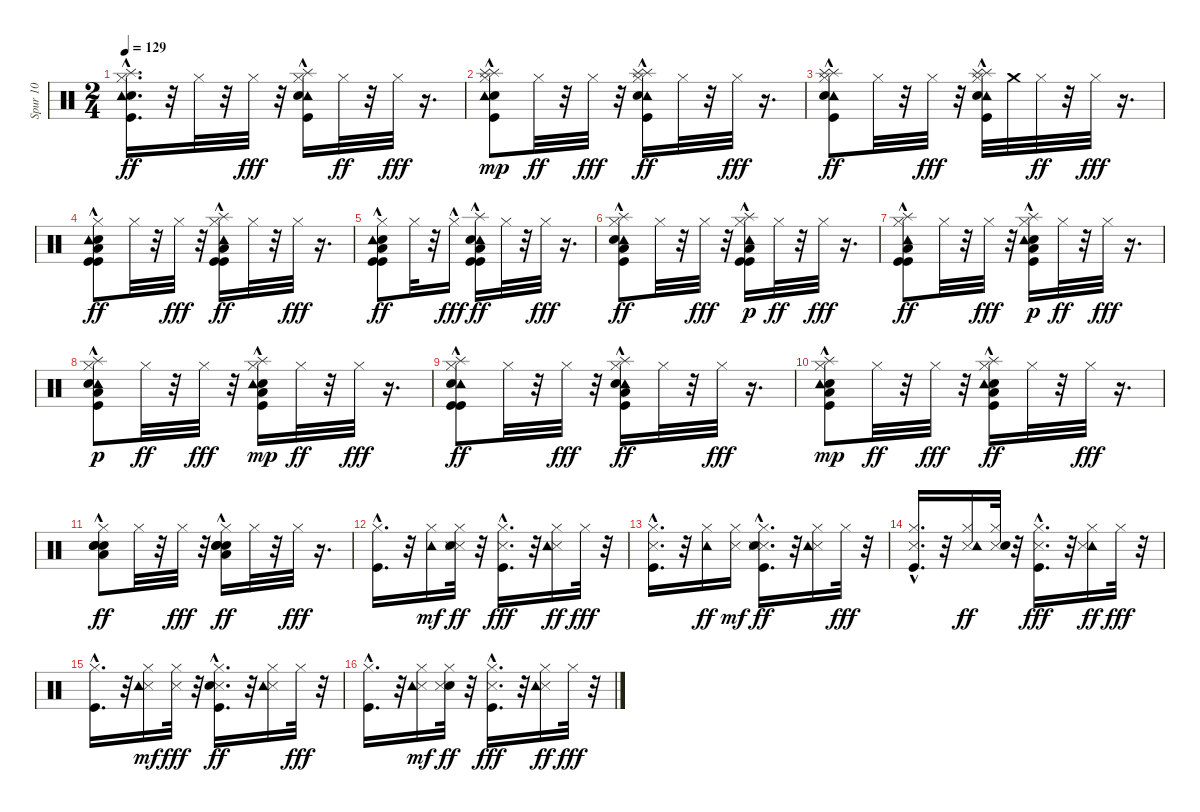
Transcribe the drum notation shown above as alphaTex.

\track ("Spur 10" "Spur 10") {instrument percussion}
\staff {score}
\articulation defaults
\ts (2 4)
\tempo 129
\clef neutral
\ks c
("Splash (hit)" "Kick (hit)"{hac} "Snare (hit) 2"{hac} "Tambourine (hit)"{hac} "Hi-Hat (closed)").16{d dy ff} r.32 "Hi-Hat (closed)".32 r.32 "Hi-Hat (closed)".32{dy fff} r.32 ("Hi-Hat (closed)" "Tambourine (hit)"{hac} "Snare (hit) 2"{hac} "Splash (hit)" "Kick (hit)"{hac}).16 "Hi-Hat (closed)".32{dy ff} r.32 "Hi-Hat (closed)".32{dy fff} r.16{d} |
("Splash (hit)" "Kick (hit)"{hac} "Snare (hit) 2"{hac} "Tambourine (hit)"{hac} "Splash (hit)" "Hi-Hat (closed)").8{dy mp} "Hi-Hat (closed)".32{dy ff} r.32 "Hi-Hat (closed)".32{dy fff} r.32 ("Tambourine (hit)"{hac} "Splash (hit)" "Hi-Hat (closed)" "Kick (hit)"{hac} "Splash (hit)" "Snare (hit) 2"{hac}).16{dy ff} "Hi-Hat (closed)".32 r.32 "Hi-Hat (closed)".32{dy fff} r.16{d} |
("Splash (hit)" "Splash (hit)" "Tambourine (hit)"{hac} "Kick (hit)"{hac} "Snare (hit) 2"{hac} "Hi-Hat (closed)").8{dy ff} "Hi-Hat (closed)".32 r.32 "Hi-Hat (closed)".32{dy fff} r.32 ("Tambourine (hit)"{hac} "Snare (hit) 2"{hac} "Hi-Hat (closed)" "Splash (hit)" "Splash (hit)" "Kick (hit)").32 "Crash medium (hit)".32 "Hi-Hat (closed)".32{dy ff} r.32 "Hi-Hat (closed)".32{dy fff} r.16{d} |
("Snare (hit) 2" "Low Tom (hit)" "Hi-Hat (closed)" "Kick (hit)" "Kick (hit)" "Tambourine (hit)"{hac}).8{dy ff} "Hi-Hat (closed)".32 r.32 "Hi-Hat (closed)".32{dy fff} r.32 ("Kick (hit)" "Splash (hit)" "Low Tom (hit)" "Kick (hit)" "Hi-Hat (closed)" "Tambourine (hit)"{hac}).16{dy ff} "Hi-Hat (closed)".32 r.32 "Hi-Hat (closed)".32{dy fff} r.16{d} |
("Snare (hit) 2"{hac} "Low Tom (hit)" "Kick (hit)" "Kick (hit)" "Tambourine (hit)"{hac} "Hi-Hat (closed)").8{dy ff} "Hi-Hat (closed)".32 r.32 "Hi-Hat (closed)"{hac}.16{dy fff} ("Kick (hit)" "Low Tom (hit)" "Kick (hit)" "Tambourine (hit)"{hac} "Splash (hit)" "Snare (hit) 2"{hac}).16{dy ff} "Hi-Hat (closed)".32 r.32 "Hi-Hat (closed)".32{dy fff} r.16{d} |
("Low Tom (hit)" "Tambourine (hit)"{hac} "Kick (hit)" "Splash (hit)" "Hi-Hat (closed)" "Snare (hit) 2").8{dy ff} "Hi-Hat (closed)".32 r.32 "Hi-Hat (closed)".32{dy fff} r.32 ("Splash (hit)" "Kick (hit)" "Kick (hit)" "Tambourine (hit)"{hac} "Hi-Hat (closed)" "Low Tom (hit)").16{dy p} "Hi-Hat (closed)".32{dy ff} r.32 "Hi-Hat (closed)".32{dy fff} r.16{d} |
("Splash (hit)" "Kick (hit)" "Low Tom (hit)" "Hi-Hat (closed)" "Tambourine (hit)"{hac} "Kick (hit)").8{dy ff} "Hi-Hat (closed)".32 r.32 "Hi-Hat (closed)".32{dy fff} r.32 ("Hi-Hat (closed)" "Snare (hit) 2"{hac} "Kick (hit)" "Splash (hit)" "Tambourine (hit)"{hac} "Low Tom (hit)").16{dy p} "Hi-Hat (closed)".32{dy ff} r.32 "Hi-Hat (closed)".32{dy fff} r.16{d} |
("Tambourine (hit)"{hac} "Snare (hit) 2"{hac} "Splash (hit)" "Kick (hit)" "Hi-Hat (closed)" "Low Tom (hit)").8{dy p} "Hi-Hat (closed)".32{dy ff} r.32 "Hi-Hat (closed)".32{dy fff} r.32 ("Snare (hit) 2"{hac} "Hi-Hat (closed)" "Kick (hit)" "Low Tom (hit)" "Tambourine (hit)"{hac} "Splash (hit)").16{dy mp} "Hi-Hat (closed)".32{dy ff} r.32 "Hi-Hat (closed)".32{dy fff} r.16{d} |
("Hi-Hat (closed)" "Kick (hit)" "Tambourine (hit)"{hac} "Snare (hit) 2"{hac} "Splash (hit)" "Kick (hit)").8{dy ff} "Hi-Hat (closed)".32 r.32 "Hi-Hat (closed)".32{dy fff} r.32 ("Low Tom (hit)" "Tambourine (hit)"{hac} "Hi-Hat (closed)" "Splash (hit)" "Snare (hit) 2"{hac} "Kick (hit)").16{dy ff} "Hi-Hat (closed)".32 r.32 "Hi-Hat (closed)".32{dy fff} r.16{d} |
("Low Tom (hit)" "Kick (hit)" "Snare (hit) 2"{hac} "Hi-Hat (closed)" "Tambourine (hit)"{hac} "Splash (hit)").8{dy mp} "Hi-Hat (closed)".32{dy ff} r.32 "Hi-Hat (closed)".32{dy fff} r.32 ("Low Tom (hit)" "Splash (hit)" "Snare (hit) 2" "Tambourine (hit)"{hac} "Hi-Hat (closed)" "Kick (hit)"{hac}).16{dy ff} "Hi-Hat (closed)".32 r.32 "Hi-Hat (closed)".32{dy fff} r.16{d} |
("Low Tom (hit)" "Snare (hit) 2" "Hi-Hat (closed)" "Snare (hit) 2" "Hand Clap (hit)"{hac}).8{dy ff} "Hi-Hat (closed)".32 r.32 "Hi-Hat (closed)".32{dy fff} r.32 ("Snare (hit) 2"{hac} "Snare (hit) 2"{hac} "Low Tom (hit)" "Hand Clap (hit)"{hac} "Hi-Hat (closed)").16{dy ff} "Hi-Hat (closed)".32 r.32 "Hi-Hat (closed)".32{dy fff} r.16{d} |
("Hi-Hat (closed)" "Kick (hit)"{hac}).16{d} r.32 ("Hi-Hat (closed)" "Tambourine (hit)").16{dy mf} ("Snare (side stick) 3" "Snare (side stick) 3" "Hi-Hat (closed)" "Snare (hit) 2").32{dy ff} r.32 ("Kick (hit)"{hac} "Hi-Hat (closed)" "Snare (side stick) 3").16{d dy fff} r.32 ("Snare (side stick) 3" "Tambourine (hit)" "Hi-Hat (closed)").16{dy ff} "Hi-Hat (closed)".32{dy fff} r.32 |
("Snare (side stick) 3" "Hi-Hat (closed)" "Kick (hit)"{hac}).16{d} r.32 ("Tambourine (hit)" "Hi-Hat (closed)").16{dy ff} ("Hi-Hat (closed)" "Snare (side stick) 3").16{dy mf} ("Snare (side stick) 3" "Snare (side stick) 3" "Kick (hit)"{hac} "Snare (hit) 2" "Hi-Hat (closed)").16{d dy ff} r.32 ("Hi-Hat (closed)" "Snare (side stick) 3" "Tambourine (hit)").16 "Hi-Hat (closed)".32{dy fff} r.32 |
("Hi-Hat (closed)" "Kick (hit)"{hac} "Snare (side stick) 3").16{d} r.32 ("Snare (side stick) 3" "Tambourine (hit)" "Hi-Hat (closed)").16{dy ff} ("Snare (side stick) 3" "Hi-Hat (closed)" "Snare (hit) 2").32 r.32 ("Hi-Hat (closed)" "Kick (hit)"{hac} "Snare (side stick) 3").16{d dy fff} r.32 ("Tambourine (hit)" "Hi-Hat (closed)" "Snare (side stick) 3").16{dy ff} "Hi-Hat (closed)".32{dy fff} r.32 |
("Kick (hit)"{hac} "Hi-Hat (closed)").16{d} r.32 ("Snare (side stick) 3" "Hi-Hat (closed)" "Tambourine (hit)").16{dy mf} ("Hi-Hat (closed)" "Snare (side stick) 3").32{dy fff} r.32 ("Snare (side stick) 3" "Hi-Hat (closed)" "Kick (hit)"{hac} "Snare (hit) 2").16{d dy ff} r.32 ("Snare (side stick) 3" "Tambourine (hit)" "Hi-Hat (closed)").16 "Hi-Hat (closed)".32{dy fff} r.32 |
("Kick (hit)"{hac} "Hi-Hat (closed)").16{d} r.32 ("Hi-Hat (closed)" "Snare (side stick) 3" "Tambourine (hit)").16{dy mf} ("Hi-Hat (closed)" "Snare (hit) 2" "Snare (side stick) 3").32{dy ff} r.32 ("Hi-Hat (closed)" "Kick (hit)"{hac} "Snare (side stick) 3").16{d dy fff} r.32 ("Snare (side stick) 3" "Tambourine (hit)" "Hi-Hat (closed)").16{dy ff} "Hi-Hat (closed)".32{dy fff} r.32
